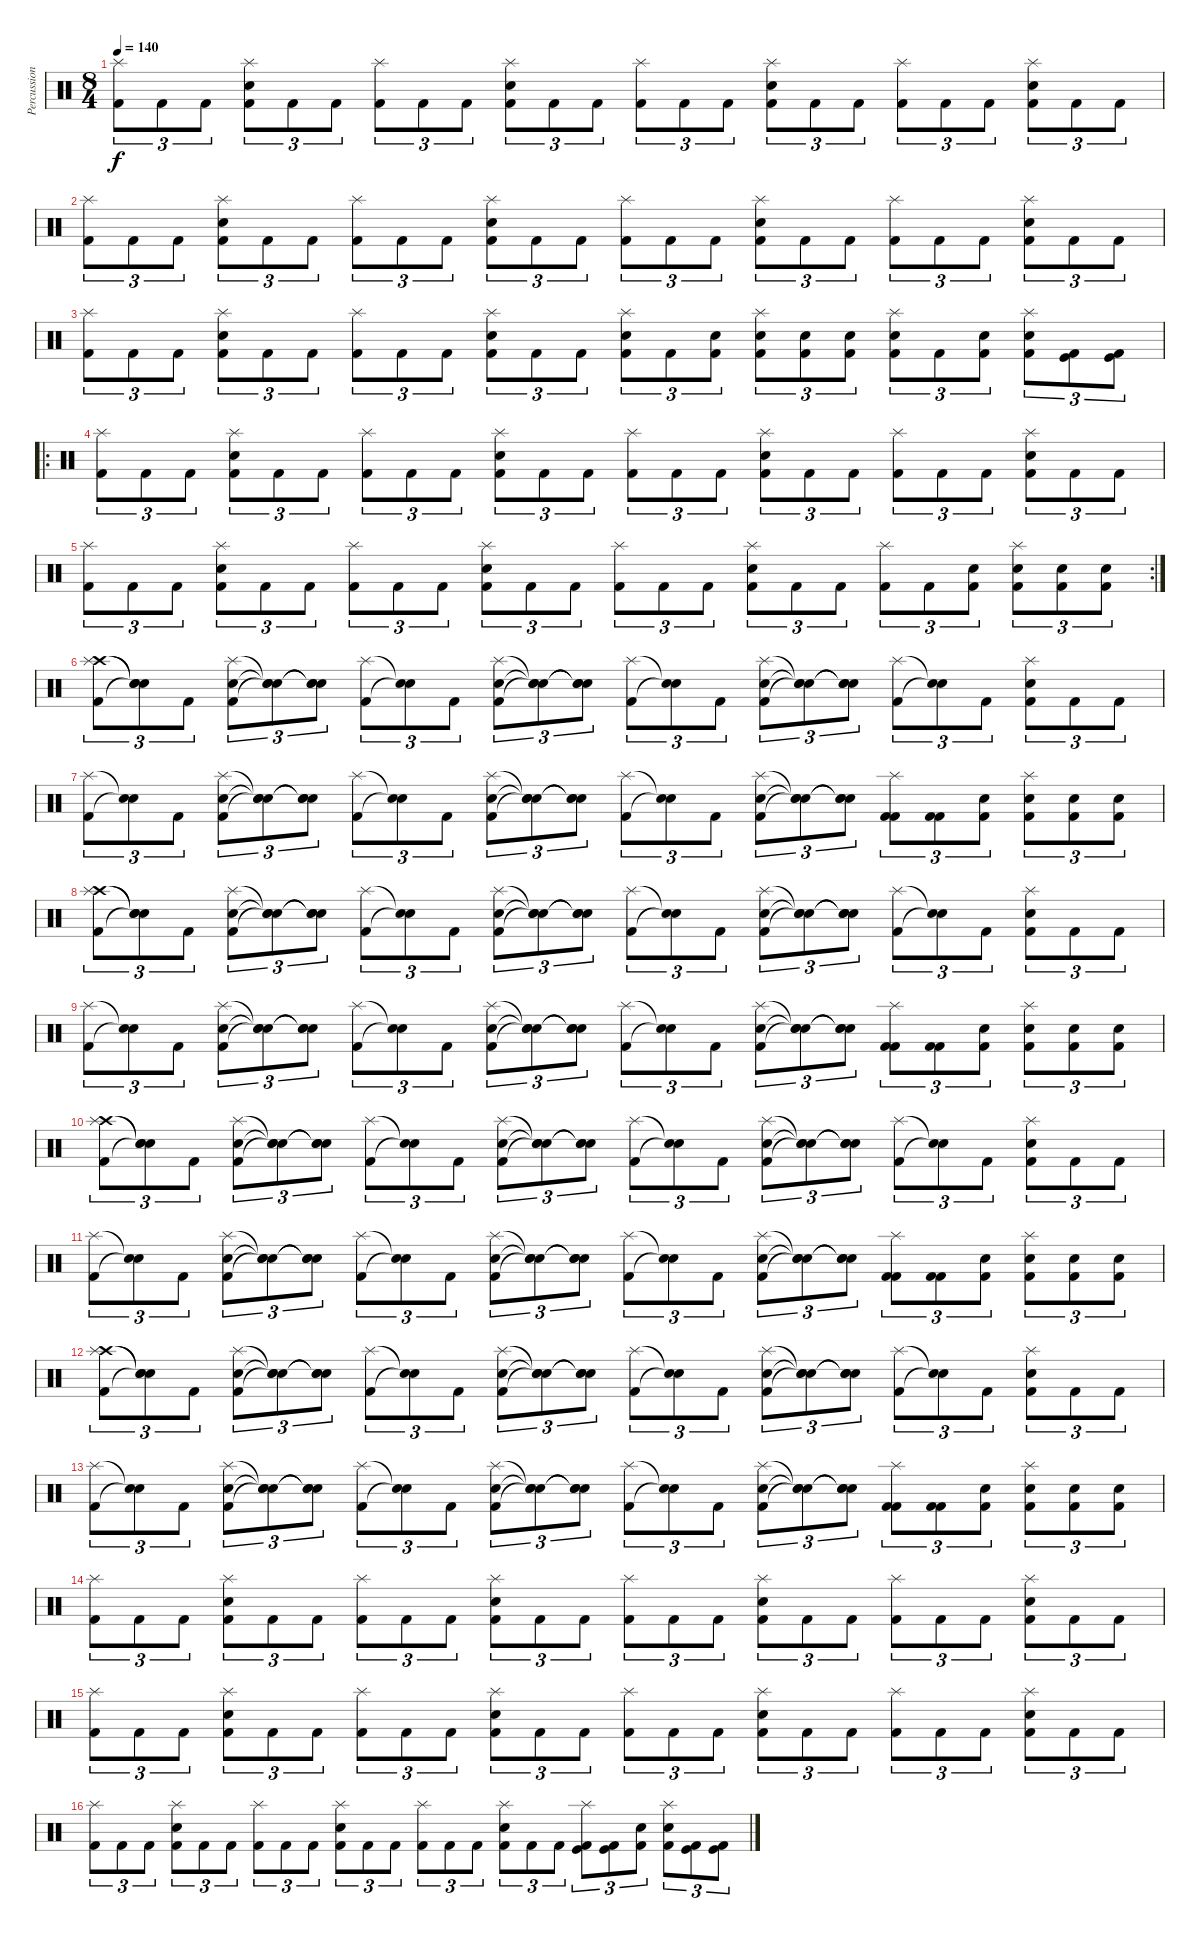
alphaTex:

\track ("Percussion" "Percussion") {instrument percussion}
\staff {score}
\articulation defaults
\ts (8 4)
\tempo 140
\clef neutral
\ks c
("Splash (hit)" "Kick (hit) 2").8{tu (3 2) dy f} "Kick (hit) 2".8{tu (3 2)} "Kick (hit) 2".8{tu (3 2)} ("Splash (hit)" "Snare (hit) 2" "Kick (hit) 2").8{tu (3 2)} "Kick (hit) 2".8{tu (3 2)} "Kick (hit) 2".8{tu (3 2)} ("Splash (hit)" "Kick (hit) 2").8{tu (3 2)} "Kick (hit) 2".8{tu (3 2)} "Kick (hit) 2".8{tu (3 2)} ("Splash (hit)" "Snare (hit) 2" "Kick (hit) 2").8{tu (3 2)} "Kick (hit) 2".8{tu (3 2)} "Kick (hit) 2".8{tu (3 2)} ("Splash (hit)" "Kick (hit) 2").8{tu (3 2)} "Kick (hit) 2".8{tu (3 2)} "Kick (hit) 2".8{tu (3 2)} ("Splash (hit)" "Snare (hit) 2" "Kick (hit) 2").8{tu (3 2)} "Kick (hit) 2".8{tu (3 2)} "Kick (hit) 2".8{tu (3 2)} ("Splash (hit)" "Kick (hit) 2").8{tu (3 2)} "Kick (hit) 2".8{tu (3 2)} "Kick (hit) 2".8{tu (3 2)} ("Splash (hit)" "Snare (hit) 2" "Kick (hit) 2").8{tu (3 2)} "Kick (hit) 2".8{tu (3 2)} "Kick (hit) 2".8{tu (3 2)} |
("Splash (hit)" "Kick (hit) 2").8{tu (3 2)} "Kick (hit) 2".8{tu (3 2)} "Kick (hit) 2".8{tu (3 2)} ("Splash (hit)" "Snare (hit) 2" "Kick (hit) 2").8{tu (3 2)} "Kick (hit) 2".8{tu (3 2)} "Kick (hit) 2".8{tu (3 2)} ("Splash (hit)" "Kick (hit) 2").8{tu (3 2)} "Kick (hit) 2".8{tu (3 2)} "Kick (hit) 2".8{tu (3 2)} ("Splash (hit)" "Snare (hit) 2" "Kick (hit) 2").8{tu (3 2)} "Kick (hit) 2".8{tu (3 2)} "Kick (hit) 2".8{tu (3 2)} ("Splash (hit)" "Kick (hit) 2").8{tu (3 2)} "Kick (hit) 2".8{tu (3 2)} "Kick (hit) 2".8{tu (3 2)} ("Splash (hit)" "Snare (hit) 2" "Kick (hit) 2").8{tu (3 2)} "Kick (hit) 2".8{tu (3 2)} "Kick (hit) 2".8{tu (3 2)} ("Splash (hit)" "Kick (hit) 2").8{tu (3 2)} "Kick (hit) 2".8{tu (3 2)} "Kick (hit) 2".8{tu (3 2)} ("Splash (hit)" "Snare (hit) 2" "Kick (hit) 2").8{tu (3 2)} "Kick (hit) 2".8{tu (3 2)} "Kick (hit) 2".8{tu (3 2)} |
("Splash (hit)" "Kick (hit) 2").8{tu (3 2)} "Kick (hit) 2".8{tu (3 2)} "Kick (hit) 2".8{tu (3 2)} ("Splash (hit)" "Snare (hit) 2" "Kick (hit) 2").8{tu (3 2)} "Kick (hit) 2".8{tu (3 2)} "Kick (hit) 2".8{tu (3 2)} ("Splash (hit)" "Kick (hit) 2").8{tu (3 2)} "Kick (hit) 2".8{tu (3 2)} "Kick (hit) 2".8{tu (3 2)} ("Splash (hit)" "Snare (hit) 2" "Kick (hit) 2").8{tu (3 2)} "Kick (hit) 2".8{tu (3 2)} "Kick (hit) 2".8{tu (3 2)} ("Splash (hit)" "Snare (hit) 2" "Kick (hit) 2").8{tu (3 2)} "Kick (hit) 2".8{tu (3 2)} ("Snare (hit) 2" "Kick (hit) 2").8{tu (3 2)} ("Splash (hit)" "Snare (hit) 2" "Kick (hit) 2").8{tu (3 2)} ("Snare (hit) 2" "Kick (hit) 2").8{tu (3 2)} ("Snare (hit) 2" "Kick (hit) 2").8{tu (3 2)} ("Splash (hit)" "Snare (hit) 2" "Kick (hit) 2").8{tu (3 2)} "Kick (hit) 2".8{tu (3 2)} ("Snare (hit) 2" "Kick (hit) 2").8{tu (3 2)} ("Splash (hit)" "Snare (hit) 2" "Kick (hit) 2").8{tu (3 2)} ("Kick (hit)" "Kick (hit) 2").8{tu (3 2)} ("Kick (hit)" "Kick (hit) 2").8{tu (3 2)} |
\ro
("Splash (hit)" "Kick (hit) 2").8{tu (3 2)} "Kick (hit) 2".8{tu (3 2)} "Kick (hit) 2".8{tu (3 2)} ("Splash (hit)" "Snare (hit) 2" "Kick (hit) 2").8{tu (3 2)} "Kick (hit) 2".8{tu (3 2)} "Kick (hit) 2".8{tu (3 2)} ("Splash (hit)" "Kick (hit) 2").8{tu (3 2)} "Kick (hit) 2".8{tu (3 2)} "Kick (hit) 2".8{tu (3 2)} ("Splash (hit)" "Snare (hit) 2" "Kick (hit) 2").8{tu (3 2)} "Kick (hit) 2".8{tu (3 2)} "Kick (hit) 2".8{tu (3 2)} ("Splash (hit)" "Kick (hit) 2").8{tu (3 2)} "Kick (hit) 2".8{tu (3 2)} "Kick (hit) 2".8{tu (3 2)} ("Splash (hit)" "Snare (hit) 2" "Kick (hit) 2").8{tu (3 2)} "Kick (hit) 2".8{tu (3 2)} "Kick (hit) 2".8{tu (3 2)} ("Splash (hit)" "Kick (hit) 2").8{tu (3 2)} "Kick (hit) 2".8{tu (3 2)} "Kick (hit) 2".8{tu (3 2)} ("Splash (hit)" "Snare (hit) 2" "Kick (hit) 2").8{tu (3 2)} "Kick (hit) 2".8{tu (3 2)} "Kick (hit) 2".8{tu (3 2)} |
\rc 2
("Splash (hit)" "Kick (hit) 2").8{tu (3 2)} "Kick (hit) 2".8{tu (3 2)} "Kick (hit) 2".8{tu (3 2)} ("Splash (hit)" "Snare (hit) 2" "Kick (hit) 2").8{tu (3 2)} "Kick (hit) 2".8{tu (3 2)} "Kick (hit) 2".8{tu (3 2)} ("Splash (hit)" "Kick (hit) 2").8{tu (3 2)} "Kick (hit) 2".8{tu (3 2)} "Kick (hit) 2".8{tu (3 2)} ("Splash (hit)" "Snare (hit) 2" "Kick (hit) 2").8{tu (3 2)} "Kick (hit) 2".8{tu (3 2)} "Kick (hit) 2".8{tu (3 2)} ("Splash (hit)" "Kick (hit) 2").8{tu (3 2)} "Kick (hit) 2".8{tu (3 2)} "Kick (hit) 2".8{tu (3 2)} ("Splash (hit)" "Snare (hit) 2" "Kick (hit) 2").8{tu (3 2)} "Kick (hit) 2".8{tu (3 2)} "Kick (hit) 2".8{tu (3 2)} ("Splash (hit)" "Kick (hit) 2").8{tu (3 2)} "Kick (hit) 2".8{tu (3 2)} ("Snare (hit) 2" "Kick (hit) 2").8{tu (3 2)} ("Splash (hit)" "Snare (hit) 2" "Kick (hit) 2").8{tu (3 2)} ("Snare (hit) 2" "Kick (hit) 2").8{tu (3 2)} ("Snare (hit) 2" "Kick (hit) 2").8{tu (3 2)} |
("Crash high (hit)" "Splash (hit)" "Kick (hit) 2").8{tu (3 2)} ("Snare (hit)"{t} "Snare (hit)"{t} "Snare (hit)"{t}).8{tu (3 2)} "Kick (hit) 2".8{tu (3 2)} ("Splash (hit)" "Snare (hit) 2" "Kick (hit) 2").8{tu (3 2)} ("Snare (hit)"{t} "Snare (hit)"{t} "Snare (hit)"{t}).8{tu (3 2)} ("Snare (hit)"{t} "Snare (hit)"{t} "Snare (hit)"{t}).8{tu (3 2)} ("Splash (hit)" "Kick (hit) 2").8{tu (3 2)} ("Snare (hit)"{t} "Snare (hit)"{t}).8{tu (3 2)} "Kick (hit) 2".8{tu (3 2)} ("Splash (hit)" "Snare (hit) 2" "Kick (hit) 2").8{tu (3 2)} ("Snare (hit)"{t} "Snare (hit)"{t} "Snare (hit)"{t}).8{tu (3 2)} ("Snare (hit)"{t} "Snare (hit)"{t} "Snare (hit)"{t}).8{tu (3 2)} ("Splash (hit)" "Kick (hit) 2").8{tu (3 2)} ("Snare (hit)"{t} "Snare (hit)"{t}).8{tu (3 2)} "Kick (hit) 2".8{tu (3 2)} ("Splash (hit)" "Snare (hit) 2" "Kick (hit) 2").8{tu (3 2)} ("Snare (hit)"{t} "Snare (hit)"{t} "Snare (hit)"{t}).8{tu (3 2)} ("Snare (hit)"{t} "Snare (hit)"{t} "Snare (hit)"{t}).8{tu (3 2)} ("Splash (hit)" "Kick (hit) 2").8{tu (3 2)} ("Snare (hit)"{t} "Snare (hit)"{t}).8{tu (3 2)} "Kick (hit) 2".8{tu (3 2)} ("Splash (hit)" "Snare (hit) 2" "Kick (hit) 2").8{tu (3 2)} "Kick (hit) 2".8{tu (3 2)} "Kick (hit) 2".8{tu (3 2)} |
("Splash (hit)" "Kick (hit) 2").8{tu (3 2)} ("Snare (hit)"{t} "Snare (hit)"{t}).8{tu (3 2)} "Kick (hit) 2".8{tu (3 2)} ("Splash (hit)" "Snare (hit) 2" "Kick (hit) 2").8{tu (3 2)} ("Snare (hit)"{t} "Snare (hit)"{t} "Snare (hit)"{t}).8{tu (3 2)} ("Snare (hit)"{t} "Snare (hit)"{t} "Snare (hit)"{t}).8{tu (3 2)} ("Splash (hit)" "Kick (hit) 2").8{tu (3 2)} ("Snare (hit)"{t} "Snare (hit)"{t}).8{tu (3 2)} "Kick (hit) 2".8{tu (3 2)} ("Splash (hit)" "Snare (hit) 2" "Kick (hit) 2").8{tu (3 2)} ("Snare (hit)"{t} "Snare (hit)"{t} "Snare (hit)"{t}).8{tu (3 2)} ("Snare (hit)"{t} "Snare (hit)"{t} "Snare (hit)"{t}).8{tu (3 2)} ("Splash (hit)" "Kick (hit) 2").8{tu (3 2)} ("Snare (hit)"{t} "Snare (hit)"{t}).8{tu (3 2)} "Kick (hit) 2".8{tu (3 2)} ("Splash (hit)" "Snare (hit) 2" "Kick (hit) 2").8{tu (3 2)} ("Snare (hit)"{t} "Snare (hit)"{t} "Snare (hit)"{t}).8{tu (3 2)} ("Snare (hit)"{t} "Snare (hit)"{t} "Snare (hit)"{t}).8{tu (3 2)} ("Splash (hit)" "Kick (hit) 2" "Kick (hit) 2").8{tu (3 2)} ("Kick (hit) 2" "Kick (hit) 2").8{tu (3 2)} ("Snare (hit) 2" "Kick (hit) 2").8{tu (3 2)} ("Splash (hit)" "Snare (hit) 2" "Kick (hit) 2").8{tu (3 2)} ("Snare (hit) 2" "Kick (hit) 2").8{tu (3 2)} ("Snare (hit) 2" "Kick (hit) 2").8{tu (3 2)} |
("Crash high (hit)" "Splash (hit)" "Kick (hit) 2").8{tu (3 2)} ("Snare (hit)"{t} "Snare (hit)"{t} "Snare (hit)"{t}).8{tu (3 2)} "Kick (hit) 2".8{tu (3 2)} ("Splash (hit)" "Snare (hit) 2" "Kick (hit) 2").8{tu (3 2)} ("Snare (hit)"{t} "Snare (hit)"{t} "Snare (hit)"{t}).8{tu (3 2)} ("Snare (hit)"{t} "Snare (hit)"{t} "Snare (hit)"{t}).8{tu (3 2)} ("Splash (hit)" "Kick (hit) 2").8{tu (3 2)} ("Snare (hit)"{t} "Snare (hit)"{t}).8{tu (3 2)} "Kick (hit) 2".8{tu (3 2)} ("Splash (hit)" "Snare (hit) 2" "Kick (hit) 2").8{tu (3 2)} ("Snare (hit)"{t} "Snare (hit)"{t} "Snare (hit)"{t}).8{tu (3 2)} ("Snare (hit)"{t} "Snare (hit)"{t} "Snare (hit)"{t}).8{tu (3 2)} ("Splash (hit)" "Kick (hit) 2").8{tu (3 2)} ("Snare (hit)"{t} "Snare (hit)"{t}).8{tu (3 2)} "Kick (hit) 2".8{tu (3 2)} ("Splash (hit)" "Snare (hit) 2" "Kick (hit) 2").8{tu (3 2)} ("Snare (hit)"{t} "Snare (hit)"{t} "Snare (hit)"{t}).8{tu (3 2)} ("Snare (hit)"{t} "Snare (hit)"{t} "Snare (hit)"{t}).8{tu (3 2)} ("Splash (hit)" "Kick (hit) 2").8{tu (3 2)} ("Snare (hit)"{t} "Snare (hit)"{t}).8{tu (3 2)} "Kick (hit) 2".8{tu (3 2)} ("Splash (hit)" "Snare (hit) 2" "Kick (hit) 2").8{tu (3 2)} "Kick (hit) 2".8{tu (3 2)} "Kick (hit) 2".8{tu (3 2)} |
("Splash (hit)" "Kick (hit) 2").8{tu (3 2)} ("Snare (hit)"{t} "Snare (hit)"{t}).8{tu (3 2)} "Kick (hit) 2".8{tu (3 2)} ("Splash (hit)" "Snare (hit) 2" "Kick (hit) 2").8{tu (3 2)} ("Snare (hit)"{t} "Snare (hit)"{t} "Snare (hit)"{t}).8{tu (3 2)} ("Snare (hit)"{t} "Snare (hit)"{t} "Snare (hit)"{t}).8{tu (3 2)} ("Splash (hit)" "Kick (hit) 2").8{tu (3 2)} ("Snare (hit)"{t} "Snare (hit)"{t}).8{tu (3 2)} "Kick (hit) 2".8{tu (3 2)} ("Splash (hit)" "Snare (hit) 2" "Kick (hit) 2").8{tu (3 2)} ("Snare (hit)"{t} "Snare (hit)"{t} "Snare (hit)"{t}).8{tu (3 2)} ("Snare (hit)"{t} "Snare (hit)"{t} "Snare (hit)"{t}).8{tu (3 2)} ("Splash (hit)" "Kick (hit) 2").8{tu (3 2)} ("Snare (hit)"{t} "Snare (hit)"{t}).8{tu (3 2)} "Kick (hit) 2".8{tu (3 2)} ("Splash (hit)" "Snare (hit) 2" "Kick (hit) 2").8{tu (3 2)} ("Snare (hit)"{t} "Snare (hit)"{t} "Snare (hit)"{t}).8{tu (3 2)} ("Snare (hit)"{t} "Snare (hit)"{t} "Snare (hit)"{t}).8{tu (3 2)} ("Splash (hit)" "Kick (hit) 2" "Kick (hit) 2").8{tu (3 2)} ("Kick (hit) 2" "Kick (hit) 2").8{tu (3 2)} ("Snare (hit) 2" "Kick (hit) 2").8{tu (3 2)} ("Splash (hit)" "Snare (hit) 2" "Kick (hit) 2").8{tu (3 2)} ("Snare (hit) 2" "Kick (hit) 2").8{tu (3 2)} ("Snare (hit) 2" "Kick (hit) 2").8{tu (3 2)} |
("Crash high (hit)" "Splash (hit)" "Kick (hit) 2").8{tu (3 2)} ("Snare (hit)"{t} "Snare (hit)"{t} "Snare (hit)"{t}).8{tu (3 2)} "Kick (hit) 2".8{tu (3 2)} ("Splash (hit)" "Snare (hit) 2" "Kick (hit) 2").8{tu (3 2)} ("Snare (hit)"{t} "Snare (hit)"{t} "Snare (hit)"{t}).8{tu (3 2)} ("Snare (hit)"{t} "Snare (hit)"{t} "Snare (hit)"{t}).8{tu (3 2)} ("Splash (hit)" "Kick (hit) 2").8{tu (3 2)} ("Snare (hit)"{t} "Snare (hit)"{t}).8{tu (3 2)} "Kick (hit) 2".8{tu (3 2)} ("Splash (hit)" "Snare (hit) 2" "Kick (hit) 2").8{tu (3 2)} ("Snare (hit)"{t} "Snare (hit)"{t} "Snare (hit)"{t}).8{tu (3 2)} ("Snare (hit)"{t} "Snare (hit)"{t} "Snare (hit)"{t}).8{tu (3 2)} ("Splash (hit)" "Kick (hit) 2").8{tu (3 2)} ("Snare (hit)"{t} "Snare (hit)"{t}).8{tu (3 2)} "Kick (hit) 2".8{tu (3 2)} ("Splash (hit)" "Snare (hit) 2" "Kick (hit) 2").8{tu (3 2)} ("Snare (hit)"{t} "Snare (hit)"{t} "Snare (hit)"{t}).8{tu (3 2)} ("Snare (hit)"{t} "Snare (hit)"{t} "Snare (hit)"{t}).8{tu (3 2)} ("Splash (hit)" "Kick (hit) 2").8{tu (3 2)} ("Snare (hit)"{t} "Snare (hit)"{t}).8{tu (3 2)} "Kick (hit) 2".8{tu (3 2)} ("Splash (hit)" "Snare (hit) 2" "Kick (hit) 2").8{tu (3 2)} "Kick (hit) 2".8{tu (3 2)} "Kick (hit) 2".8{tu (3 2)} |
("Splash (hit)" "Kick (hit) 2").8{tu (3 2)} ("Snare (hit)"{t} "Snare (hit)"{t}).8{tu (3 2)} "Kick (hit) 2".8{tu (3 2)} ("Splash (hit)" "Snare (hit) 2" "Kick (hit) 2").8{tu (3 2)} ("Snare (hit)"{t} "Snare (hit)"{t} "Snare (hit)"{t}).8{tu (3 2)} ("Snare (hit)"{t} "Snare (hit)"{t} "Snare (hit)"{t}).8{tu (3 2)} ("Splash (hit)" "Kick (hit) 2").8{tu (3 2)} ("Snare (hit)"{t} "Snare (hit)"{t}).8{tu (3 2)} "Kick (hit) 2".8{tu (3 2)} ("Splash (hit)" "Snare (hit) 2" "Kick (hit) 2").8{tu (3 2)} ("Snare (hit)"{t} "Snare (hit)"{t} "Snare (hit)"{t}).8{tu (3 2)} ("Snare (hit)"{t} "Snare (hit)"{t} "Snare (hit)"{t}).8{tu (3 2)} ("Splash (hit)" "Kick (hit) 2").8{tu (3 2)} ("Snare (hit)"{t} "Snare (hit)"{t}).8{tu (3 2)} "Kick (hit) 2".8{tu (3 2)} ("Splash (hit)" "Snare (hit) 2" "Kick (hit) 2").8{tu (3 2)} ("Snare (hit)"{t} "Snare (hit)"{t} "Snare (hit)"{t}).8{tu (3 2)} ("Snare (hit)"{t} "Snare (hit)"{t} "Snare (hit)"{t}).8{tu (3 2)} ("Splash (hit)" "Kick (hit) 2" "Kick (hit) 2").8{tu (3 2)} ("Kick (hit) 2" "Kick (hit) 2").8{tu (3 2)} ("Snare (hit) 2" "Kick (hit) 2").8{tu (3 2)} ("Splash (hit)" "Snare (hit) 2" "Kick (hit) 2").8{tu (3 2)} ("Snare (hit) 2" "Kick (hit) 2").8{tu (3 2)} ("Snare (hit) 2" "Kick (hit) 2").8{tu (3 2)} |
("Crash high (hit)" "Splash (hit)" "Kick (hit) 2").8{tu (3 2)} ("Snare (hit)"{t} "Snare (hit)"{t} "Snare (hit)"{t}).8{tu (3 2)} "Kick (hit) 2".8{tu (3 2)} ("Splash (hit)" "Snare (hit) 2" "Kick (hit) 2").8{tu (3 2)} ("Snare (hit)"{t} "Snare (hit)"{t} "Snare (hit)"{t}).8{tu (3 2)} ("Snare (hit)"{t} "Snare (hit)"{t} "Snare (hit)"{t}).8{tu (3 2)} ("Splash (hit)" "Kick (hit) 2").8{tu (3 2)} ("Snare (hit)"{t} "Snare (hit)"{t}).8{tu (3 2)} "Kick (hit) 2".8{tu (3 2)} ("Splash (hit)" "Snare (hit) 2" "Kick (hit) 2").8{tu (3 2)} ("Snare (hit)"{t} "Snare (hit)"{t} "Snare (hit)"{t}).8{tu (3 2)} ("Snare (hit)"{t} "Snare (hit)"{t} "Snare (hit)"{t}).8{tu (3 2)} ("Splash (hit)" "Kick (hit) 2").8{tu (3 2)} ("Snare (hit)"{t} "Snare (hit)"{t}).8{tu (3 2)} "Kick (hit) 2".8{tu (3 2)} ("Splash (hit)" "Snare (hit) 2" "Kick (hit) 2").8{tu (3 2)} ("Snare (hit)"{t} "Snare (hit)"{t} "Snare (hit)"{t}).8{tu (3 2)} ("Snare (hit)"{t} "Snare (hit)"{t} "Snare (hit)"{t}).8{tu (3 2)} ("Splash (hit)" "Kick (hit) 2").8{tu (3 2)} ("Snare (hit)"{t} "Snare (hit)"{t}).8{tu (3 2)} "Kick (hit) 2".8{tu (3 2)} ("Splash (hit)" "Snare (hit) 2" "Kick (hit) 2").8{tu (3 2)} "Kick (hit) 2".8{tu (3 2)} "Kick (hit) 2".8{tu (3 2)} |
("Splash (hit)" "Kick (hit) 2").8{tu (3 2)} ("Snare (hit)"{t} "Snare (hit)"{t}).8{tu (3 2)} "Kick (hit) 2".8{tu (3 2)} ("Splash (hit)" "Snare (hit) 2" "Kick (hit) 2").8{tu (3 2)} ("Snare (hit)"{t} "Snare (hit)"{t} "Snare (hit)"{t}).8{tu (3 2)} ("Snare (hit)"{t} "Snare (hit)"{t} "Snare (hit)"{t}).8{tu (3 2)} ("Splash (hit)" "Kick (hit) 2").8{tu (3 2)} ("Snare (hit)"{t} "Snare (hit)"{t}).8{tu (3 2)} "Kick (hit) 2".8{tu (3 2)} ("Splash (hit)" "Snare (hit) 2" "Kick (hit) 2").8{tu (3 2)} ("Snare (hit)"{t} "Snare (hit)"{t} "Snare (hit)"{t}).8{tu (3 2)} ("Snare (hit)"{t} "Snare (hit)"{t} "Snare (hit)"{t}).8{tu (3 2)} ("Splash (hit)" "Kick (hit) 2").8{tu (3 2)} ("Snare (hit)"{t} "Snare (hit)"{t}).8{tu (3 2)} "Kick (hit) 2".8{tu (3 2)} ("Splash (hit)" "Snare (hit) 2" "Kick (hit) 2").8{tu (3 2)} ("Snare (hit)"{t} "Snare (hit)"{t} "Snare (hit)"{t}).8{tu (3 2)} ("Snare (hit)"{t} "Snare (hit)"{t} "Snare (hit)"{t}).8{tu (3 2)} ("Splash (hit)" "Kick (hit) 2" "Kick (hit) 2").8{tu (3 2)} ("Kick (hit) 2" "Kick (hit) 2").8{tu (3 2)} ("Snare (hit) 2" "Kick (hit) 2").8{tu (3 2)} ("Splash (hit)" "Snare (hit) 2" "Kick (hit) 2").8{tu (3 2)} ("Snare (hit) 2" "Kick (hit) 2").8{tu (3 2)} ("Snare (hit) 2" "Kick (hit) 2").8{tu (3 2)} |
("Splash (hit)" "Kick (hit) 2").8{tu (3 2)} "Kick (hit) 2".8{tu (3 2)} "Kick (hit) 2".8{tu (3 2)} ("Splash (hit)" "Snare (hit) 2" "Kick (hit) 2").8{tu (3 2)} "Kick (hit) 2".8{tu (3 2)} "Kick (hit) 2".8{tu (3 2)} ("Splash (hit)" "Kick (hit) 2").8{tu (3 2)} "Kick (hit) 2".8{tu (3 2)} "Kick (hit) 2".8{tu (3 2)} ("Splash (hit)" "Snare (hit) 2" "Kick (hit) 2").8{tu (3 2)} "Kick (hit) 2".8{tu (3 2)} "Kick (hit) 2".8{tu (3 2)} ("Splash (hit)" "Kick (hit) 2").8{tu (3 2)} "Kick (hit) 2".8{tu (3 2)} "Kick (hit) 2".8{tu (3 2)} ("Splash (hit)" "Snare (hit) 2" "Kick (hit) 2").8{tu (3 2)} "Kick (hit) 2".8{tu (3 2)} "Kick (hit) 2".8{tu (3 2)} ("Splash (hit)" "Kick (hit) 2").8{tu (3 2)} "Kick (hit) 2".8{tu (3 2)} "Kick (hit) 2".8{tu (3 2)} ("Splash (hit)" "Snare (hit) 2" "Kick (hit) 2").8{tu (3 2)} "Kick (hit) 2".8{tu (3 2)} "Kick (hit) 2".8{tu (3 2)} |
("Splash (hit)" "Kick (hit) 2").8{tu (3 2)} "Kick (hit) 2".8{tu (3 2)} "Kick (hit) 2".8{tu (3 2)} ("Splash (hit)" "Snare (hit) 2" "Kick (hit) 2").8{tu (3 2)} "Kick (hit) 2".8{tu (3 2)} "Kick (hit) 2".8{tu (3 2)} ("Splash (hit)" "Kick (hit) 2").8{tu (3 2)} "Kick (hit) 2".8{tu (3 2)} "Kick (hit) 2".8{tu (3 2)} ("Splash (hit)" "Snare (hit) 2" "Kick (hit) 2").8{tu (3 2)} "Kick (hit) 2".8{tu (3 2)} "Kick (hit) 2".8{tu (3 2)} ("Splash (hit)" "Kick (hit) 2").8{tu (3 2)} "Kick (hit) 2".8{tu (3 2)} "Kick (hit) 2".8{tu (3 2)} ("Splash (hit)" "Snare (hit) 2" "Kick (hit) 2").8{tu (3 2)} "Kick (hit) 2".8{tu (3 2)} "Kick (hit) 2".8{tu (3 2)} ("Splash (hit)" "Kick (hit) 2").8{tu (3 2)} "Kick (hit) 2".8{tu (3 2)} "Kick (hit) 2".8{tu (3 2)} ("Splash (hit)" "Snare (hit) 2" "Kick (hit) 2").8{tu (3 2)} "Kick (hit) 2".8{tu (3 2)} "Kick (hit) 2".8{tu (3 2)} |
("Splash (hit)" "Kick (hit) 2").8{tu (3 2)} "Kick (hit) 2".8{tu (3 2)} "Kick (hit) 2".8{tu (3 2)} ("Splash (hit)" "Snare (hit) 2" "Kick (hit) 2").8{tu (3 2)} "Kick (hit) 2".8{tu (3 2)} "Kick (hit) 2".8{tu (3 2)} ("Splash (hit)" "Kick (hit) 2").8{tu (3 2)} "Kick (hit) 2".8{tu (3 2)} "Kick (hit) 2".8{tu (3 2)} ("Splash (hit)" "Snare (hit) 2" "Kick (hit) 2").8{tu (3 2)} "Kick (hit) 2".8{tu (3 2)} "Kick (hit) 2".8{tu (3 2)} ("Splash (hit)" "Kick (hit) 2").8{tu (3 2)} "Kick (hit) 2".8{tu (3 2)} "Kick (hit) 2".8{tu (3 2)} ("Splash (hit)" "Snare (hit) 2" "Kick (hit) 2").8{tu (3 2)} "Kick (hit) 2".8{tu (3 2)} "Kick (hit) 2".8{tu (3 2)} ("Splash (hit)" "Kick (hit)" "Kick (hit) 2").8{tu (3 2)} ("Kick (hit)" "Kick (hit) 2").8{tu (3 2)} ("Snare (hit) 2" "Kick (hit) 2").8{tu (3 2)} ("Splash (hit)" "Snare (hit) 2" "Kick (hit) 2").8{tu (3 2)} ("Kick (hit)" "Kick (hit) 2").8{tu (3 2)} ("Kick (hit)" "Kick (hit) 2").8{tu (3 2)}
